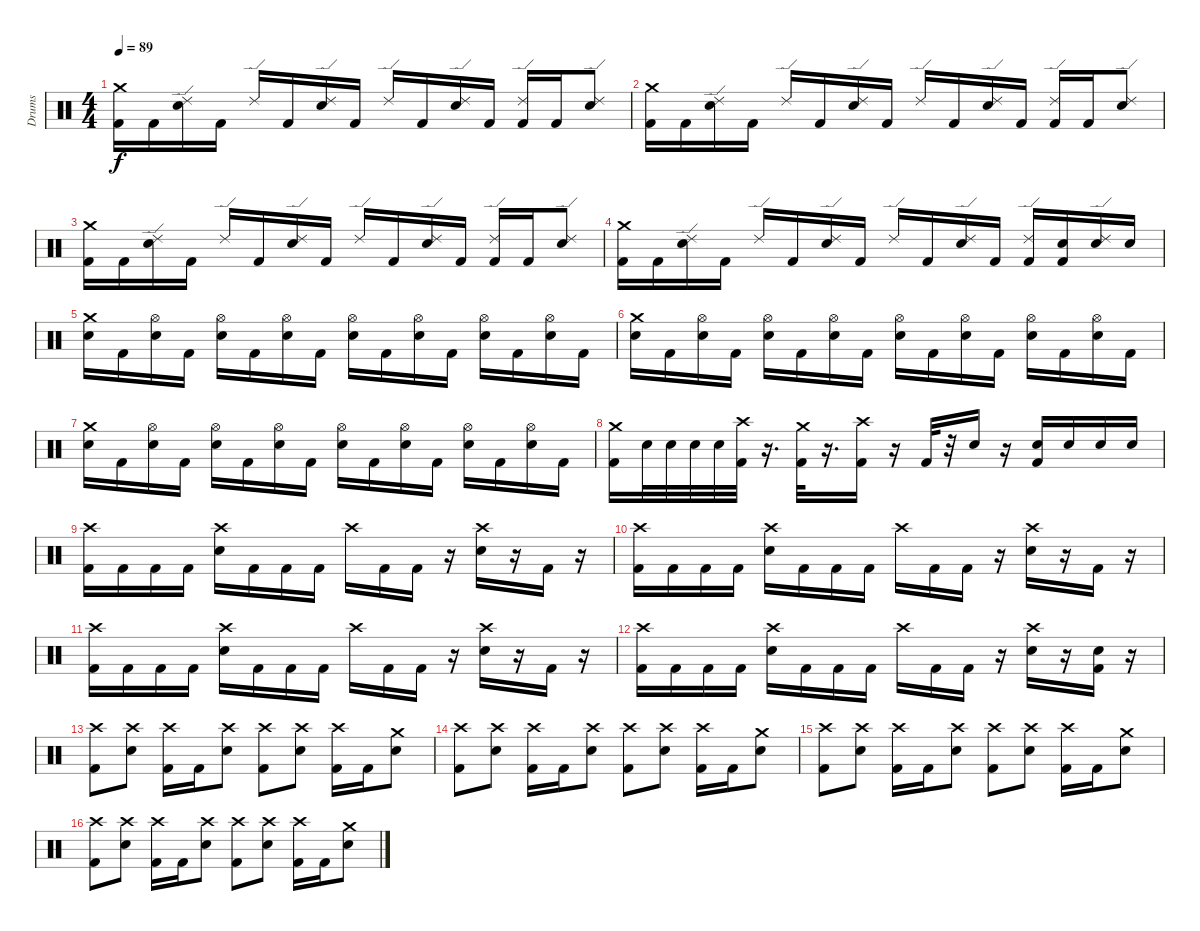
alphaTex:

\track ("Drums" "Drums") {instrument percussion}
\staff {score}
\articulation defaults
\ts (4 4)
\tempo 89
\clef neutral
\ks c
("Kick (hit) 2" "Crash medium (hit)").16{dy f} "Kick (hit) 2".16 ("Electric Snare (hit)" "Ride (edge) 2").16 "Kick (hit) 2".16 "Ride (edge) 2".16 "Kick (hit) 2".16 ("Electric Snare (hit)" "Ride (edge) 2").16 "Kick (hit) 2".16 "Ride (edge) 2".16 "Kick (hit) 2".16 ("Electric Snare (hit)" "Ride (edge) 2").16 "Kick (hit) 2".16 ("Kick (hit) 2" "Ride (edge) 2").16 "Kick (hit) 2".16 ("Electric Snare (hit)" "Ride (edge) 2").8 |
("Kick (hit) 2" "Crash medium (hit)").16 "Kick (hit) 2".16 ("Electric Snare (hit)" "Ride (edge) 2").16 "Kick (hit) 2".16 "Ride (edge) 2".16 "Kick (hit) 2".16 ("Electric Snare (hit)" "Ride (edge) 2").16 "Kick (hit) 2".16 "Ride (edge) 2".16 "Kick (hit) 2".16 ("Electric Snare (hit)" "Ride (edge) 2").16 "Kick (hit) 2".16 ("Kick (hit) 2" "Ride (edge) 2").16 "Kick (hit) 2".16 ("Electric Snare (hit)" "Ride (edge) 2").8 |
("Kick (hit) 2" "Crash medium (hit)").16 "Kick (hit) 2".16 ("Electric Snare (hit)" "Ride (edge) 2").16 "Kick (hit) 2".16 "Ride (edge) 2".16 "Kick (hit) 2".16 ("Electric Snare (hit)" "Ride (edge) 2").16 "Kick (hit) 2".16 "Ride (edge) 2".16 "Kick (hit) 2".16 ("Electric Snare (hit)" "Ride (edge) 2").16 "Kick (hit) 2".16 ("Kick (hit) 2" "Ride (edge) 2").16 "Kick (hit) 2".16 ("Electric Snare (hit)" "Ride (edge) 2").8 |
("Kick (hit) 2" "Crash medium (hit)").16 "Kick (hit) 2".16 ("Electric Snare (hit)" "Ride (edge) 2").16 "Kick (hit) 2".16 "Ride (edge) 2".16 "Kick (hit) 2".16 ("Electric Snare (hit)" "Ride (edge) 2").16 "Kick (hit) 2".16 "Ride (edge) 2".16 "Kick (hit) 2".16 ("Electric Snare (hit)" "Ride (edge) 2").16 "Kick (hit) 2".16 ("Kick (hit) 2" "Ride (edge) 2").16 ("Electric Snare (hit)" "Kick (hit) 2").16 ("Electric Snare (hit)" "Ride (edge) 2").16 "Electric Snare (hit)".16 |
("Electric Snare (hit)" "Crash medium (hit)").16 "Kick (hit) 2".16 ("Electric Snare (hit)" "Hi-Hat (open)").16 "Kick (hit) 2".16 ("Electric Snare (hit)" "Hi-Hat (open)").16 "Kick (hit) 2".16 ("Electric Snare (hit)" "Hi-Hat (open)").16 "Kick (hit) 2".16 ("Electric Snare (hit)" "Hi-Hat (open)").16 "Kick (hit) 2".16 ("Electric Snare (hit)" "Hi-Hat (open)").16 "Kick (hit) 2".16 ("Electric Snare (hit)" "Hi-Hat (open)").16 "Kick (hit) 2".16 ("Electric Snare (hit)" "Hi-Hat (open)").16 "Kick (hit) 2".16 |
("Electric Snare (hit)" "Crash medium (hit)").16 "Kick (hit) 2".16 ("Electric Snare (hit)" "Hi-Hat (open)").16 "Kick (hit) 2".16 ("Electric Snare (hit)" "Hi-Hat (open)").16 "Kick (hit) 2".16 ("Electric Snare (hit)" "Hi-Hat (open)").16 "Kick (hit) 2".16 ("Electric Snare (hit)" "Hi-Hat (open)").16 "Kick (hit) 2".16 ("Electric Snare (hit)" "Hi-Hat (open)").16 "Kick (hit) 2".16 ("Electric Snare (hit)" "Hi-Hat (open)").16 "Kick (hit) 2".16 ("Electric Snare (hit)" "Hi-Hat (open)").16 "Kick (hit) 2".16 |
("Electric Snare (hit)" "Crash medium (hit)").16 "Kick (hit) 2".16 ("Electric Snare (hit)" "Hi-Hat (open)").16 "Kick (hit) 2".16 ("Electric Snare (hit)" "Hi-Hat (open)").16 "Kick (hit) 2".16 ("Electric Snare (hit)" "Hi-Hat (open)").16 "Kick (hit) 2".16 ("Electric Snare (hit)" "Hi-Hat (open)").16 "Kick (hit) 2".16 ("Electric Snare (hit)" "Hi-Hat (open)").16 "Kick (hit) 2".16 ("Electric Snare (hit)" "Hi-Hat (open)").16 "Kick (hit) 2".16 ("Electric Snare (hit)" "Hi-Hat (open)").16 "Kick (hit) 2".16 |
("Kick (hit) 2" "Crash medium (hit)").16 "Electric Snare (hit)".32 "Electric Snare (hit)".32 "Electric Snare (hit)".32 "Electric Snare (hit)".32 ("Crash high (hit)" "Kick (hit) 2").32 r.16{d} ("Crash medium (hit)" "Kick (hit) 2").32 r.16{d} ("Crash high (hit)" "Kick (hit) 2").16 r.16 "Kick (hit) 2".32 r.32 "Electric Snare (hit)".16 r.16 ("Electric Snare (hit)" "Kick (hit) 2").16 "Electric Snare (hit)".16 "Electric Snare (hit)".16 "Electric Snare (hit)".16 |
("Kick (hit) 2" "Crash high (hit)").16 "Kick (hit) 2".16 "Kick (hit) 2".16 "Kick (hit) 2".16 ("Electric Snare (hit)" "Crash high (hit)").16 "Kick (hit) 2".16 "Kick (hit) 2".16 "Kick (hit) 2".16 "Crash high (hit)".16 "Kick (hit) 2".16 "Kick (hit) 2".16 r.16 ("Electric Snare (hit)" "Crash high (hit)").16 r.16 "Kick (hit) 2".16 r.16 |
("Kick (hit) 2" "Crash high (hit)").16 "Kick (hit) 2".16 "Kick (hit) 2".16 "Kick (hit) 2".16 ("Electric Snare (hit)" "Crash high (hit)").16 "Kick (hit) 2".16 "Kick (hit) 2".16 "Kick (hit) 2".16 "Crash high (hit)".16 "Kick (hit) 2".16 "Kick (hit) 2".16 r.16 ("Electric Snare (hit)" "Crash high (hit)").16 r.16 "Kick (hit) 2".16 r.16 |
("Kick (hit) 2" "Crash high (hit)").16 "Kick (hit) 2".16 "Kick (hit) 2".16 "Kick (hit) 2".16 ("Electric Snare (hit)" "Crash high (hit)").16 "Kick (hit) 2".16 "Kick (hit) 2".16 "Kick (hit) 2".16 "Crash high (hit)".16 "Kick (hit) 2".16 "Kick (hit) 2".16 r.16 ("Electric Snare (hit)" "Crash high (hit)").16 r.16 "Kick (hit) 2".16 r.16 |
("Kick (hit) 2" "Crash high (hit)").16 "Kick (hit) 2".16 "Kick (hit) 2".16 "Kick (hit) 2".16 ("Electric Snare (hit)" "Crash high (hit)").16 "Kick (hit) 2".16 "Kick (hit) 2".16 "Kick (hit) 2".16 "Crash high (hit)".16 "Kick (hit) 2".16 "Kick (hit) 2".16 r.16 ("Electric Snare (hit)" "Crash high (hit)").16 r.16 ("Electric Snare (hit)" "Kick (hit) 2").16 r.16 |
("Kick (hit) 2" "Crash high (hit)").8 ("Electric Snare (hit)" "Crash high (hit)").8 ("Kick (hit) 2" "Crash high (hit)").16 "Kick (hit) 2".16 ("Electric Snare (hit)" "Crash high (hit)").8 ("Kick (hit) 2" "Crash high (hit)").8 ("Electric Snare (hit)" "Crash high (hit)").8 ("Kick (hit) 2" "Crash high (hit)").16 "Kick (hit) 2".16 ("Electric Snare (hit)" "Crash medium (hit)").8 |
("Kick (hit) 2" "Crash high (hit)").8 ("Electric Snare (hit)" "Crash high (hit)").8 ("Kick (hit) 2" "Crash high (hit)").16 "Kick (hit) 2".16 ("Electric Snare (hit)" "Crash high (hit)").8 ("Kick (hit) 2" "Crash high (hit)").8 ("Electric Snare (hit)" "Crash high (hit)").8 ("Kick (hit) 2" "Crash high (hit)").16 "Kick (hit) 2".16 ("Electric Snare (hit)" "Crash medium (hit)").8 |
("Kick (hit) 2" "Crash high (hit)").8 ("Electric Snare (hit)" "Crash high (hit)").8 ("Kick (hit) 2" "Crash high (hit)").16 "Kick (hit) 2".16 ("Electric Snare (hit)" "Crash high (hit)").8 ("Kick (hit) 2" "Crash high (hit)").8 ("Electric Snare (hit)" "Crash high (hit)").8 ("Kick (hit) 2" "Crash high (hit)").16 "Kick (hit) 2".16 ("Electric Snare (hit)" "Crash medium (hit)").8 |
("Kick (hit) 2" "Crash high (hit)").8 ("Electric Snare (hit)" "Crash high (hit)").8 ("Kick (hit) 2" "Crash high (hit)").16 "Kick (hit) 2".16 ("Electric Snare (hit)" "Crash high (hit)").8 ("Kick (hit) 2" "Crash high (hit)").8 ("Electric Snare (hit)" "Crash high (hit)").8 ("Kick (hit) 2" "Crash high (hit)").16 "Kick (hit) 2".16 ("Electric Snare (hit)" "Crash medium (hit)").8
